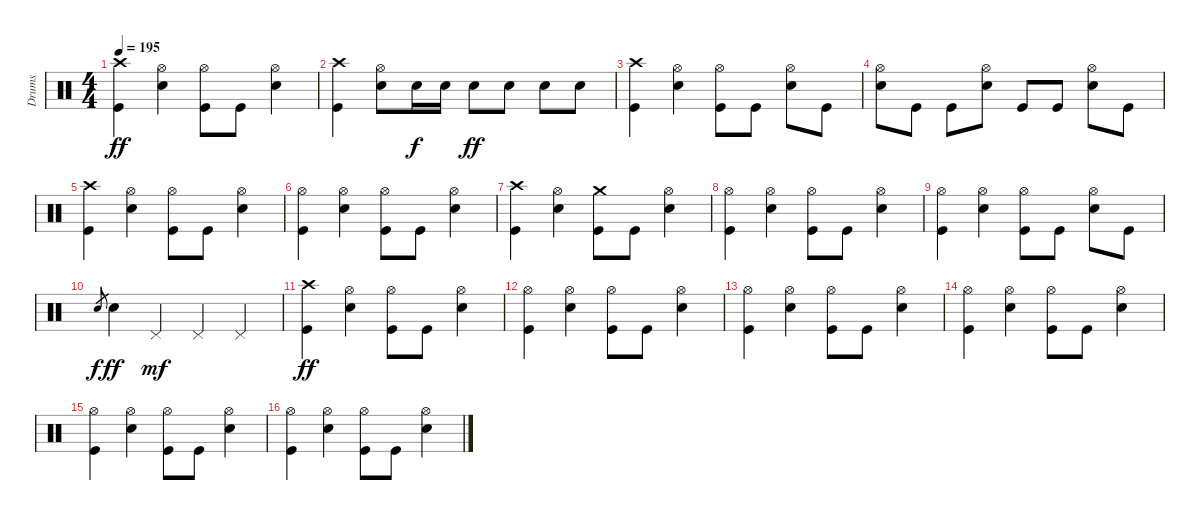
\track ("Drums" "Drums") {instrument percussion}
\staff {score}
\articulation defaults
\ts (4 4)
\tempo 195
\clef neutral
\ks c
("Crash high (hit)" "Kick (hit)").4{dy ff} ("Hi-Hat (open)" "Snare (hit) 2").4 ("Hi-Hat (open)" "Kick (hit)").8 "Kick (hit)".8 ("Hi-Hat (open)" "Snare (hit) 2").4 |
("Crash high (hit)" "Kick (hit)").4 ("Hi-Hat (open)" "Snare (hit) 2").8 "Snare (hit) 2".16{dy f} "Snare (hit) 2".16 "Snare (hit) 2".8{dy ff} "Snare (hit) 2".8 "Snare (hit) 2".8 "Snare (hit) 2".8 |
("Crash high (hit)" "Kick (hit)").4 ("Hi-Hat (open)" "Snare (hit) 2").4 ("Hi-Hat (open)" "Kick (hit)").8 "Kick (hit)".8 ("Hi-Hat (open)" "Snare (hit) 2").8 "Kick (hit)".8 |
("Hi-Hat (open)" "Snare (hit) 2").8 "Kick (hit)".8 "Kick (hit)".8 ("Hi-Hat (open)" "Snare (hit) 2").8 "Kick (hit)".8 "Kick (hit)".8 ("Hi-Hat (open)" "Snare (hit) 2").8 "Kick (hit)".8 |
("Crash high (hit)" "Kick (hit)").4 ("Hi-Hat (open)" "Snare (hit) 2").4 ("Hi-Hat (open)" "Kick (hit)").8 "Kick (hit)".8 ("Hi-Hat (open)" "Snare (hit) 2").4 |
("Hi-Hat (open)" "Kick (hit)").4 ("Hi-Hat (open)" "Snare (hit) 2").4 ("Hi-Hat (open)" "Kick (hit)").8 "Kick (hit)".8 ("Hi-Hat (open)" "Snare (hit) 2").4 |
("Crash high (hit)" "Kick (hit)").4 ("Hi-Hat (open)" "Snare (hit) 2").4 ("Crash medium (hit)" "Kick (hit)").8 "Kick (hit)".8 ("Hi-Hat (open)" "Snare (hit) 2").4 |
("Hi-Hat (open)" "Kick (hit)").4 ("Hi-Hat (open)" "Snare (hit) 2").4 ("Hi-Hat (open)" "Kick (hit)").8 "Kick (hit)".8 ("Hi-Hat (open)" "Snare (hit) 2").4 |
("Hi-Hat (open)" "Kick (hit)").4 ("Hi-Hat (open)" "Snare (hit) 2").4 ("Hi-Hat (open)" "Kick (hit)").8 "Kick (hit)".8 ("Hi-Hat (open)" "Snare (hit) 2").8 "Kick (hit)".8 |
"Snare (hit) 2".8{gr dy f} "Snare (hit) 2".4{dy ff} "Pedal Hi-Hat (hit)".4{dy mf} "Pedal Hi-Hat (hit)".4 "Pedal Hi-Hat (hit)".4 |
("Crash high (hit)" "Kick (hit)").4{dy ff} ("Hi-Hat (open)" "Snare (hit) 2").4 ("Hi-Hat (open)" "Kick (hit)").8 "Kick (hit)".8 ("Hi-Hat (open)" "Snare (hit) 2").4 |
("Hi-Hat (open)" "Kick (hit)").4 ("Hi-Hat (open)" "Snare (hit) 2").4 ("Hi-Hat (open)" "Kick (hit)").8 "Kick (hit)".8 ("Hi-Hat (open)" "Snare (hit) 2").4 |
("Hi-Hat (open)" "Kick (hit)").4 ("Hi-Hat (open)" "Snare (hit) 2").4 ("Hi-Hat (open)" "Kick (hit)").8 "Kick (hit)".8 ("Hi-Hat (open)" "Snare (hit) 2").4 |
("Hi-Hat (open)" "Kick (hit)").4 ("Hi-Hat (open)" "Snare (hit) 2").4 ("Hi-Hat (open)" "Kick (hit)").8 "Kick (hit)".8 ("Hi-Hat (open)" "Snare (hit) 2").4 |
("Hi-Hat (open)" "Kick (hit)").4 ("Hi-Hat (open)" "Snare (hit) 2").4 ("Hi-Hat (open)" "Kick (hit)").8 "Kick (hit)".8 ("Hi-Hat (open)" "Snare (hit) 2").4 |
("Hi-Hat (open)" "Kick (hit)").4 ("Hi-Hat (open)" "Snare (hit) 2").4 ("Hi-Hat (open)" "Kick (hit)").8 "Kick (hit)".8 ("Hi-Hat (open)" "Snare (hit) 2").4
